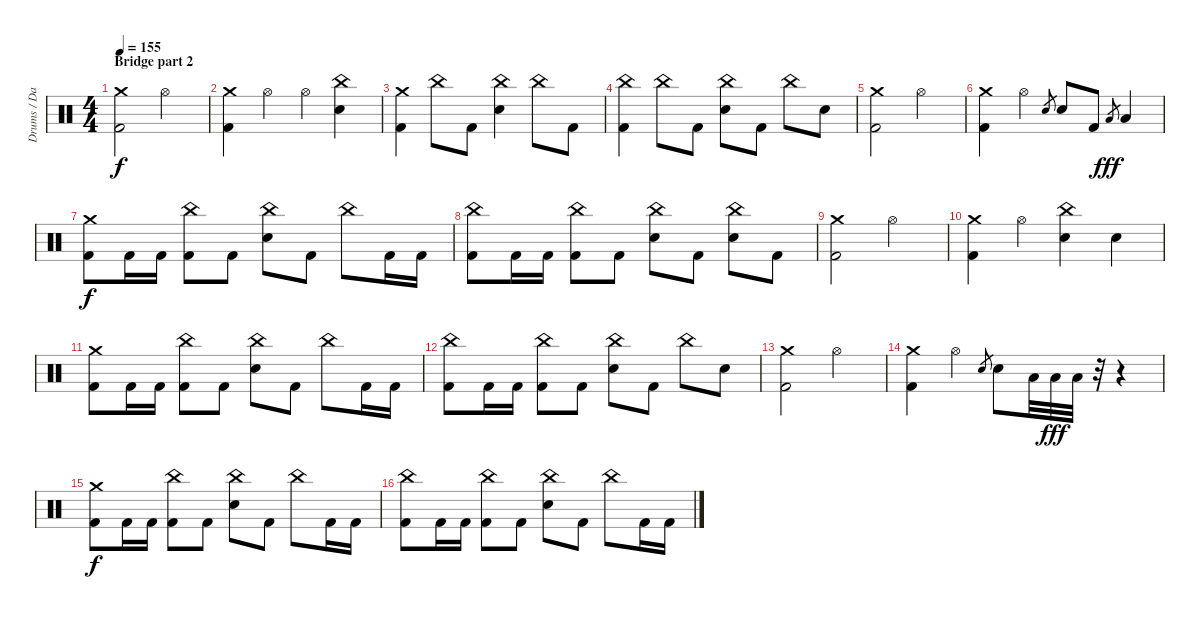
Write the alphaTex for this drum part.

\track ("Drums / David" "Drums / Da") {instrument percussion}
\staff {score}
\articulation defaults
\ts (4 4)
\section ("" "Bridge part 2")
\tempo 155
\clef neutral
\ks c
("Crash medium (hit)" "Kick (hit) 2").2{dy f} "Hi-Hat (open)".2 |
("Crash medium (hit)" "Kick (hit) 2").4 "Hi-Hat (open)".4 "Hi-Hat (open)".4 ("China (hit)" "Electric Snare (hit)").4 |
("Crash medium (hit)" "Kick (hit) 2").4 "China (hit)".8 "Kick (hit) 2".8 ("China (hit)" "Electric Snare (hit)").4 "China (hit)".8 "Kick (hit) 2".8 |
("China (hit)" "Kick (hit) 2").4 "China (hit)".8 "Kick (hit) 2".8 ("China (hit)" "Electric Snare (hit)").8 "Kick (hit) 2".8 "China (hit)".8 "Electric Snare (hit)".8 |
("Crash medium (hit)" "Kick (hit) 2").2 "Hi-Hat (open)".2 |
("Crash medium (hit)" "Kick (hit) 2").4 "Hi-Hat (open)".4 "Electric Snare (hit)".8{gr} "Electric Snare (hit)".8 "Kick (hit) 2".8 "Low Floor Tom (hit)".8{gr dy fff} "Low Floor Tom (hit)".4 |
("Crash medium (hit)" "Kick (hit) 2").8{dy f} "Kick (hit) 2".16 "Kick (hit) 2".16 ("China (hit)" "Kick (hit) 2").8 "Kick (hit) 2".8 ("China (hit)" "Electric Snare (hit)").8 "Kick (hit) 2".8 "China (hit)".8 "Kick (hit) 2".16 "Kick (hit) 2".16 |
("China (hit)" "Kick (hit) 2").8 "Kick (hit) 2".16 "Kick (hit) 2".16 ("China (hit)" "Kick (hit) 2").8 "Kick (hit) 2".8 ("China (hit)" "Electric Snare (hit)").8 "Kick (hit) 2".8 ("China (hit)" "Electric Snare (hit)").8 "Kick (hit) 2".8 |
("Crash medium (hit)" "Kick (hit) 2").2 "Hi-Hat (open)".2 |
("Crash medium (hit)" "Kick (hit) 2").4 "Hi-Hat (open)".4 ("China (hit)" "Electric Snare (hit)").4 "Electric Snare (hit)".4 |
("Crash medium (hit)" "Kick (hit) 2").8 "Kick (hit) 2".16 "Kick (hit) 2".16 ("China (hit)" "Kick (hit) 2").8 "Kick (hit) 2".8 ("China (hit)" "Electric Snare (hit)").8 "Kick (hit) 2".8 "China (hit)".8 "Kick (hit) 2".16 "Kick (hit) 2".16 |
("China (hit)" "Kick (hit) 2").8 "Kick (hit) 2".16 "Kick (hit) 2".16 ("China (hit)" "Kick (hit) 2").8 "Kick (hit) 2".8 ("China (hit)" "Electric Snare (hit)").8 "Kick (hit) 2".8 "China (hit)".8 "Electric Snare (hit)".8 |
("Crash medium (hit)" "Kick (hit) 2").2 "Hi-Hat (open)".2 |
("Crash medium (hit)" "Kick (hit) 2").4 "Hi-Hat (open)".4 "Electric Snare (hit)".8{gr} "Electric Snare (hit)".8 "Low Tom (hit)".32 "Low Floor Tom (hit)".32{dy fff} "Low Floor Tom (hit)".32 r.32 r.4 |
("Crash medium (hit)" "Kick (hit) 2").8{dy f} "Kick (hit) 2".16 "Kick (hit) 2".16 ("China (hit)" "Kick (hit) 2").8 "Kick (hit) 2".8 ("China (hit)" "Electric Snare (hit)").8 "Kick (hit) 2".8 "China (hit)".8 "Kick (hit) 2".16 "Kick (hit) 2".16 |
("China (hit)" "Kick (hit) 2").8 "Kick (hit) 2".16 "Kick (hit) 2".16 ("China (hit)" "Kick (hit) 2").8 "Kick (hit) 2".8 ("China (hit)" "Electric Snare (hit)").8 "Kick (hit) 2".8 "China (hit)".8 "Kick (hit) 2".16 "Kick (hit) 2".16
